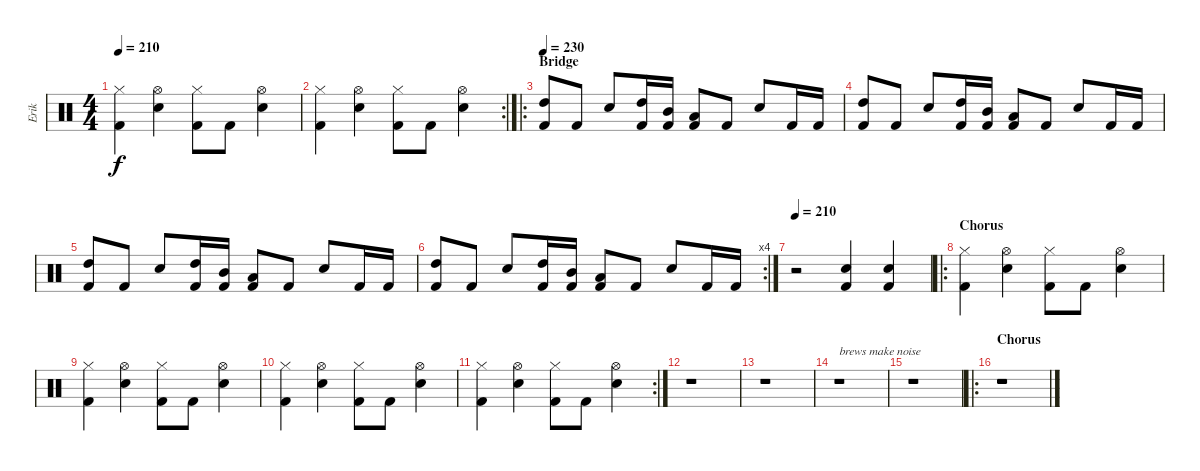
\track ("Erik" "Erik") {instrument percussion}
\staff {score}
\articulation defaults
\ts (4 4)
\tempo 210
\clef neutral
\ks c
("Hi-Hat (closed)" "Kick (hit) 2").4{dy f} ("Hi-Hat (open)" "Snare (hit) 2").4 ("Hi-Hat (closed)" "Kick (hit) 2").8 "Kick (hit) 2".8 ("Hi-Hat (open)" "Snare (hit) 2").4 |
\rc 2
("Hi-Hat (closed)" "Kick (hit) 2").4 ("Hi-Hat (open)" "Snare (hit) 2").4 ("Hi-Hat (closed)" "Kick (hit) 2").8 "Kick (hit) 2".8 ("Hi-Hat (open)" "Snare (hit) 2").4 |
\ro
\section ("" "Bridge")
\tempo 230
("High Tom (hit)" "Kick (hit) 2").8 "Kick (hit) 2".8 "Snare (hit) 2".8 ("High Tom (hit)" "Kick (hit) 2").16 ("Mid Tom (hit)" "Kick (hit) 2").16 ("Low Tom (hit)" "Kick (hit) 2").8 "Kick (hit) 2".8 "Snare (hit) 2".8 "Kick (hit) 2".16 "Kick (hit) 2".16 |
("High Tom (hit)" "Kick (hit) 2").8 "Kick (hit) 2".8 "Snare (hit) 2".8 ("High Tom (hit)" "Kick (hit) 2").16 ("Mid Tom (hit)" "Kick (hit) 2").16 ("Low Tom (hit)" "Kick (hit) 2").8 "Kick (hit) 2".8 "Snare (hit) 2".8 "Kick (hit) 2".16 "Kick (hit) 2".16 |
("High Tom (hit)" "Kick (hit) 2").8 "Kick (hit) 2".8 "Snare (hit) 2".8 ("High Tom (hit)" "Kick (hit) 2").16 ("Mid Tom (hit)" "Kick (hit) 2").16 ("Low Tom (hit)" "Kick (hit) 2").8 "Kick (hit) 2".8 "Snare (hit) 2".8 "Kick (hit) 2".16 "Kick (hit) 2".16 |
\rc 4
("High Tom (hit)" "Kick (hit) 2").8 "Kick (hit) 2".8 "Snare (hit) 2".8 ("High Tom (hit)" "Kick (hit) 2").16 ("Mid Tom (hit)" "Kick (hit) 2").16 ("Low Tom (hit)" "Kick (hit) 2").8 "Kick (hit) 2".8 "Snare (hit) 2".8 "Kick (hit) 2".16 "Kick (hit) 2".16 |
\tempo 210
r.2 ("Kick (hit) 2" "Snare (hit) 2").4 ("Kick (hit) 2" "Snare (hit) 2").4 |
\ro
\section ("" "Chorus")
("Hi-Hat (closed)" "Kick (hit) 2").4 ("Hi-Hat (open)" "Snare (hit) 2").4 ("Hi-Hat (closed)" "Kick (hit) 2").8 "Kick (hit) 2".8 ("Hi-Hat (open)" "Snare (hit) 2").4 |
("Hi-Hat (closed)" "Kick (hit) 2").4 ("Hi-Hat (open)" "Snare (hit) 2").4 ("Hi-Hat (closed)" "Kick (hit) 2").8 "Kick (hit) 2".8 ("Hi-Hat (open)" "Snare (hit) 2").4 |
("Hi-Hat (closed)" "Kick (hit) 2").4 ("Hi-Hat (open)" "Snare (hit) 2").4 ("Hi-Hat (closed)" "Kick (hit) 2").8 "Kick (hit) 2".8 ("Hi-Hat (open)" "Snare (hit) 2").4 |
\rc 2
("Hi-Hat (closed)" "Kick (hit) 2").4 ("Hi-Hat (open)" "Snare (hit) 2").4 ("Hi-Hat (closed)" "Kick (hit) 2").8 "Kick (hit) 2".8 ("Hi-Hat (open)" "Snare (hit) 2").4 |
r.1 |
r.1 |
r.1{txt "brews make noise"} |
r.1 |
\ro
\section ("" "Chorus")
r.1
